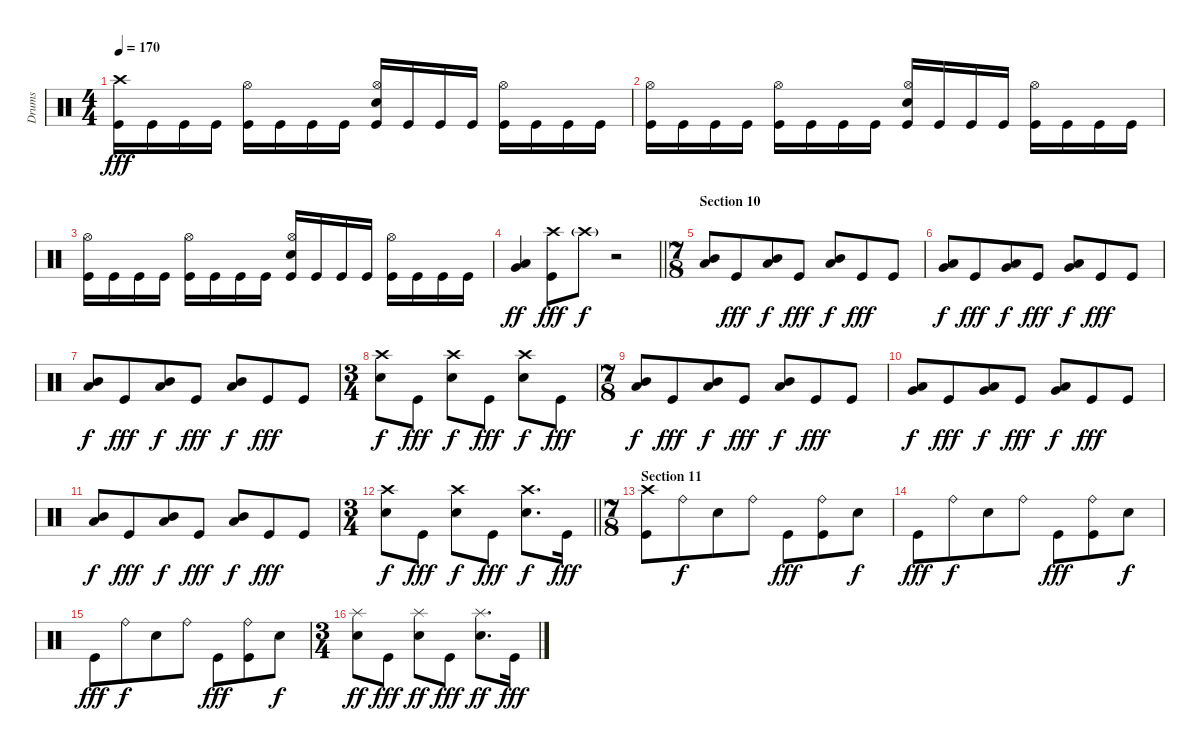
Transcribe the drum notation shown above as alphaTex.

\track ("Drums" "Drums") {instrument percussion}
\staff {score}
\articulation defaults
\ts (4 4)
\tempo 170
\clef neutral
\ks c
("Crash high (hit)" "Kick (hit)").16{dy fff} "Kick (hit)".16 "Kick (hit)".16 "Kick (hit)".16 ("Hi-Hat (open)" "Kick (hit)").16 "Kick (hit)".16 "Kick (hit)".16 "Kick (hit)".16 ("Hi-Hat (open)" "Snare (hit) 2" "Kick (hit)").16 "Kick (hit)".16 "Kick (hit)".16 "Kick (hit)".16 ("Hi-Hat (open)" "Kick (hit)").16 "Kick (hit)".16 "Kick (hit)".16 "Kick (hit)".16 |
("Hi-Hat (open)" "Kick (hit)").16 "Kick (hit)".16 "Kick (hit)".16 "Kick (hit)".16 ("Hi-Hat (open)" "Kick (hit)").16 "Kick (hit)".16 "Kick (hit)".16 "Kick (hit)".16 ("Hi-Hat (open)" "Snare (hit) 2" "Kick (hit)").16 "Kick (hit)".16 "Kick (hit)".16 "Kick (hit)".16 ("Hi-Hat (open)" "Kick (hit)").16 "Kick (hit)".16 "Kick (hit)".16 "Kick (hit)".16 |
("Hi-Hat (open)" "Kick (hit)").16 "Kick (hit)".16 "Kick (hit)".16 "Kick (hit)".16 ("Hi-Hat (open)" "Kick (hit)").16 "Kick (hit)".16 "Kick (hit)".16 "Kick (hit)".16 ("Hi-Hat (open)" "Snare (hit) 2" "Kick (hit)").16 "Kick (hit)".16 "Kick (hit)".16 "Kick (hit)".16 ("Hi-Hat (open)" "Kick (hit)").16 "Kick (hit)".16 "Kick (hit)".16 "Kick (hit)".16 |
\barLineRight lightlight
("Low Tom (hit)" "Very Low Tom (hit)").4{bd 120 dy ff} ("Crash high (hit)" "Kick (hit)").8{dy fff} "Crash high (hit)"{g}.8{dy f volume 0} r.2 |
\ts (7 8)
\section ("" "Section 10")
("Mid Tom (hit)" "Low Tom (hit)").8{volume 13} "Kick (hit)".8{dy fff} ("Mid Tom (hit)" "Low Tom (hit)").8{dy f} "Kick (hit)".8{dy fff} ("Mid Tom (hit)" "Low Tom (hit)").8{dy f} "Kick (hit)".8{dy fff} "Kick (hit)".8 |
("Very Low Tom (hit)" "Low Floor Tom (hit)").8{dy f} "Kick (hit)".8{dy fff} ("Very Low Tom (hit)" "Low Floor Tom (hit)").8{dy f} "Kick (hit)".8{dy fff} ("Very Low Tom (hit)" "Low Floor Tom (hit)").8{dy f} "Kick (hit)".8{dy fff} "Kick (hit)".8 |
("Mid Tom (hit)" "Low Tom (hit)").8{dy f} "Kick (hit)".8{dy fff} ("Mid Tom (hit)" "Low Tom (hit)").8{dy f} "Kick (hit)".8{dy fff} ("Mid Tom (hit)" "Low Tom (hit)").8{dy f} "Kick (hit)".8{dy fff} "Kick (hit)".8 |
\ts (3 4)
("Crash high (hit)" "Snare (hit) 2").8{dy f} "Kick (hit)".8{dy fff} ("Crash high (hit)" "Snare (hit) 2").8{dy f} "Kick (hit)".8{dy fff} ("Crash high (hit)" "Snare (hit) 2").8{dy f} "Kick (hit)".8{dy fff} |
\ts (7 8)
("Mid Tom (hit)" "Low Tom (hit)").8{dy f} "Kick (hit)".8{dy fff} ("Mid Tom (hit)" "Low Tom (hit)").8{dy f} "Kick (hit)".8{dy fff} ("Mid Tom (hit)" "Low Tom (hit)").8{dy f} "Kick (hit)".8{dy fff} "Kick (hit)".8 |
("Very Low Tom (hit)" "Low Floor Tom (hit)").8{dy f} "Kick (hit)".8{dy fff} ("Very Low Tom (hit)" "Low Floor Tom (hit)").8{dy f} "Kick (hit)".8{dy fff} ("Very Low Tom (hit)" "Low Floor Tom (hit)").8{dy f} "Kick (hit)".8{dy fff} "Kick (hit)".8 |
("Mid Tom (hit)" "Low Tom (hit)").8{dy f} "Kick (hit)".8{dy fff} ("Mid Tom (hit)" "Low Tom (hit)").8{dy f} "Kick (hit)".8{dy fff} ("Mid Tom (hit)" "Low Tom (hit)").8{dy f} "Kick (hit)".8{dy fff} "Kick (hit)".8 |
\ts (3 4)
\barLineRight lightlight
("Crash high (hit)" "Snare (hit) 2").8{dy f} "Kick (hit)".8{dy fff} ("Crash high (hit)" "Snare (hit) 2").8{dy f} "Kick (hit)".8{dy fff} ("Crash high (hit)" "Snare (hit) 2").8{d dy f} "Kick (hit)".16{dy fff} |
\ts (7 8)
\section ("" "Section 11")
("Crash high (hit)" "Kick (hit)").8 "Ride (bell)".8{dy f} "Snare (hit) 2".8 "Ride (bell)".8 "Kick (hit)".8{dy fff} ("Ride (bell)" "Kick (hit)").8 "Snare (hit) 2".8{dy f} |
"Kick (hit)".8{dy fff} "Ride (bell)".8{dy f} "Snare (hit) 2".8 "Ride (bell)".8 "Kick (hit)".8{dy fff} ("Ride (bell)" "Kick (hit)").8 "Snare (hit) 2".8{dy f} |
"Kick (hit)".8{dy fff} "Ride (bell)".8{dy f} "Snare (hit) 2".8 "Ride (bell)".8 "Kick (hit)".8{dy fff} ("Ride (bell)" "Kick (hit)").8 "Snare (hit) 2".8{dy f} |
\ts (3 4)
("Splash (hit)" "Snare (hit) 2").8{dy ff} "Kick (hit)".8{dy fff} ("Splash (hit)" "Snare (hit) 2").8{dy ff} "Kick (hit)".8{dy fff} ("Splash (hit)" "Snare (hit) 2").8{d dy ff} "Kick (hit)".16{dy fff}
